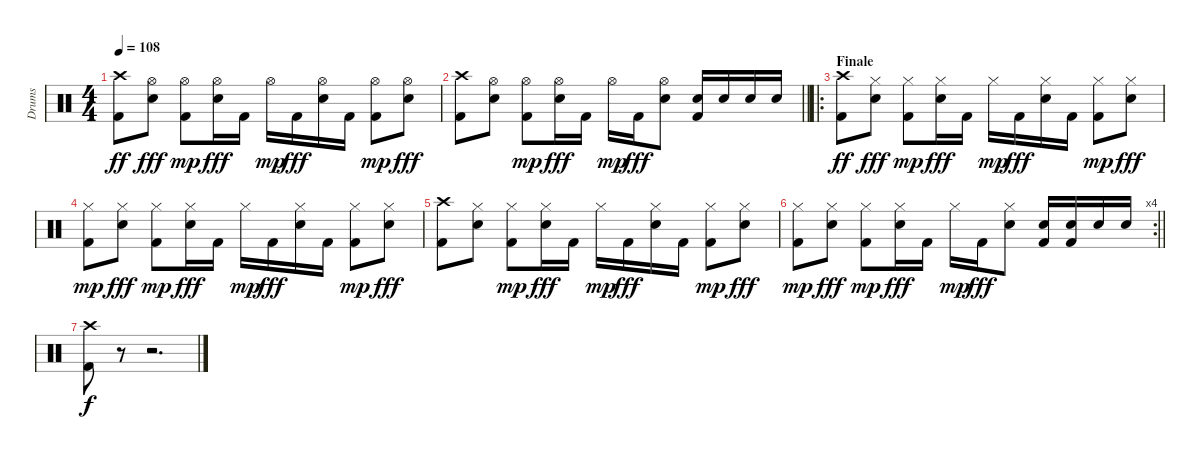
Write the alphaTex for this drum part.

\track ("Drums" "Drums") {instrument percussion}
\staff {score}
\articulation defaults
\ts (4 4)
\tempo 108
\clef neutral
\ks c
("Kick (hit) 2" "Crash high (hit)").8{dy ff} ("Snare (hit) 2" "Hi-Hat (open)").8{dy fff} ("Kick (hit) 2" "Hi-Hat (open)").8{dy mp} ("Snare (hit) 2" "Hi-Hat (open)").16{dy fff} "Kick (hit) 2".16 "Hi-Hat (open)".16{dy mp} "Kick (hit) 2".16{dy fff} ("Snare (hit) 2" "Hi-Hat (open)").16 "Kick (hit) 2".16 ("Kick (hit) 2" "Hi-Hat (open)").8{dy mp} ("Snare (hit) 2" "Hi-Hat (open)").8{dy fff} |
\barLineRight lightlight
("Kick (hit) 2" "Crash high (hit)").8 ("Snare (hit) 2" "Hi-Hat (open)").8 ("Kick (hit) 2" "Hi-Hat (open)").8{dy mp} ("Snare (hit) 2" "Hi-Hat (open)").16{dy fff} "Kick (hit) 2".16 "Hi-Hat (open)".16{dy mp} "Kick (hit) 2".16{dy fff} ("Snare (hit) 2" "Hi-Hat (open)").8 ("Snare (hit) 2" "Kick (hit) 2").16 "Snare (hit) 2".16 "Snare (hit) 2".16 "Snare (hit) 2".16 |
\ro
\section ("" "Finale")
("Kick (hit) 2" "Crash high (hit)").8{dy ff} ("Snare (hit) 2" "Hi-Hat (closed)").8{dy fff} ("Kick (hit) 2" "Hi-Hat (closed)").8{dy mp} ("Snare (hit) 2" "Hi-Hat (closed)").16{dy fff} "Kick (hit) 2".16 "Hi-Hat (closed)".16{dy mp} "Kick (hit) 2".16{dy fff} ("Snare (hit) 2" "Hi-Hat (closed)").16 "Kick (hit) 2".16 ("Kick (hit) 2" "Hi-Hat (closed)").8{dy mp} ("Snare (hit) 2" "Hi-Hat (closed)").8{dy fff} |
("Kick (hit) 2" "Hi-Hat (closed)").8{dy mp} ("Snare (hit) 2" "Hi-Hat (closed)").8{dy fff} ("Kick (hit) 2" "Hi-Hat (closed)").8{dy mp} ("Snare (hit) 2" "Hi-Hat (closed)").16{dy fff} "Kick (hit) 2".16 "Hi-Hat (closed)".16{dy mp} "Kick (hit) 2".16{dy fff} ("Snare (hit) 2" "Hi-Hat (closed)").16 "Kick (hit) 2".16 ("Kick (hit) 2" "Hi-Hat (closed)").8{dy mp} ("Snare (hit) 2" "Hi-Hat (closed)").8{dy fff} |
("Kick (hit) 2" "Crash high (hit)").8 ("Snare (hit) 2" "Hi-Hat (closed)").8 ("Kick (hit) 2" "Hi-Hat (closed)").8{dy mp} ("Snare (hit) 2" "Hi-Hat (closed)").16{dy fff} "Kick (hit) 2".16 "Hi-Hat (closed)".16{dy mp} "Kick (hit) 2".16{dy fff} ("Snare (hit) 2" "Hi-Hat (closed)").16 "Kick (hit) 2".16 ("Kick (hit) 2" "Hi-Hat (closed)").8{dy mp} ("Snare (hit) 2" "Hi-Hat (closed)").8{dy fff} |
\rc 4
\barLineRight lightlight
("Kick (hit) 2" "Hi-Hat (closed)").8{dy mp} ("Snare (hit) 2" "Hi-Hat (closed)").8{dy fff} ("Kick (hit) 2" "Hi-Hat (closed)").8{dy mp} ("Snare (hit) 2" "Hi-Hat (closed)").16{dy fff} "Kick (hit) 2".16 "Hi-Hat (closed)".16{dy mp} "Kick (hit) 2".16{dy fff} ("Snare (hit) 2" "Hi-Hat (closed)").8 ("Snare (hit) 2" "Kick (hit) 2").16 ("Snare (hit) 2" "Kick (hit) 2").16 "Snare (hit) 2".16 "Snare (hit) 2".16 |
("Kick (hit) 2" "Crash high (hit)").8{dy f} r.8 r.2{d}
